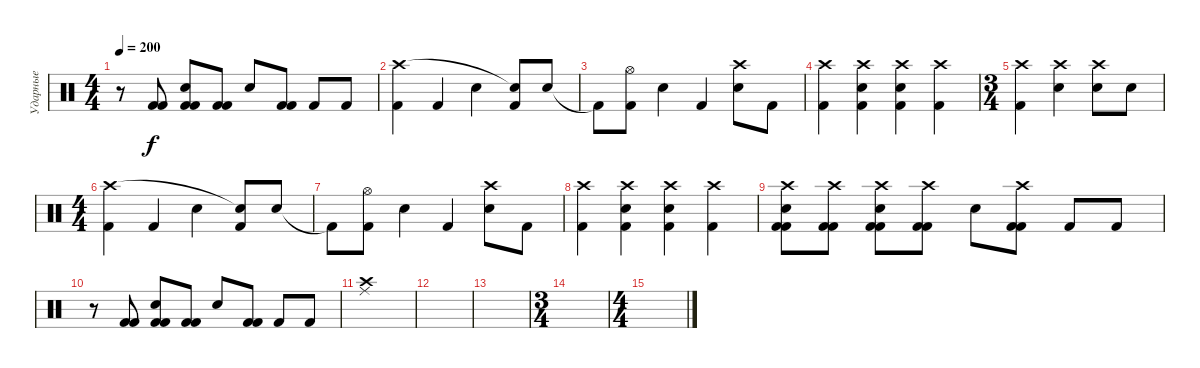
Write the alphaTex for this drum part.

\track ("Ударные" "Ударные") {instrument percussion}
\staff {score}
\articulation defaults
\ts (4 4)
\tempo 200
\clef neutral
\ks c
r.8{dy f} ("Kick (hit) 2" "Kick (hit) 2").8 ("Kick (hit) 2" "Kick (hit) 2" "Electric Snare (hit)").8 ("Kick (hit) 2" "Kick (hit) 2").8 "Electric Snare (hit)".8 ("Kick (hit) 2" "Kick (hit) 2").8 "Kick (hit) 2".8 "Kick (hit) 2".8 |
("Kick (hit) 2" "Crash high (hit)").4 "Kick (hit) 2".4 "Electric Snare (hit)".4 ("Kick (hit) 2" "Snare (hit)"{t}).8 "Electric Snare (hit)".8 |
"Kick (hit) 2"{t}.8 ("Hi-Hat (open)" "Kick (hit) 2").8 "Electric Snare (hit)".4 "Kick (hit) 2".4 ("Crash high (hit)" "Electric Snare (hit)").8 "Kick (hit) 2".8 |
("Crash high (hit)" "Kick (hit) 2").4 ("Crash high (hit)" "Kick (hit) 2" "Electric Snare (hit)").4 ("Crash high (hit)" "Kick (hit) 2" "Electric Snare (hit)").4 ("Crash high (hit)" "Kick (hit) 2").4 |
\ts (3 4)
("Crash high (hit)" "Kick (hit) 2").4 ("Crash high (hit)" "Electric Snare (hit)").4 ("Crash high (hit)" "Electric Snare (hit)").8 "Electric Snare (hit)".8 |
\ts (4 4)
("Kick (hit) 2" "Crash high (hit)").4 "Kick (hit) 2".4 "Electric Snare (hit)".4 ("Kick (hit) 2" "Snare (hit)"{t}).8 "Electric Snare (hit)".8 |
"Kick (hit) 2"{t}.8 ("Hi-Hat (open)" "Kick (hit) 2").8 "Electric Snare (hit)".4 "Kick (hit) 2".4 ("Crash high (hit)" "Electric Snare (hit)").8 "Kick (hit) 2".8 |
("Crash high (hit)" "Kick (hit) 2").4 ("Crash high (hit)" "Kick (hit) 2" "Electric Snare (hit)").4 ("Crash high (hit)" "Kick (hit) 2" "Electric Snare (hit)").4 ("Crash high (hit)" "Kick (hit) 2").4 |
("Crash high (hit)" "Kick (hit) 2" "Kick (hit) 2" "Electric Snare (hit)").8 ("Crash high (hit)" "Kick (hit) 2" "Kick (hit) 2").8 ("Crash high (hit)" "Kick (hit) 2" "Kick (hit) 2" "Electric Snare (hit)").8 ("Crash high (hit)" "Kick (hit) 2" "Kick (hit) 2").8 "Electric Snare (hit)".8 ("Crash high (hit)" "Kick (hit) 2" "Kick (hit) 2").8 "Kick (hit) 2".8 "Kick (hit) 2".8 |
r.8 ("Kick (hit) 2" "Kick (hit) 2").8 ("Kick (hit) 2" "Kick (hit) 2" "Electric Snare (hit)").8 ("Kick (hit) 2" "Kick (hit) 2").8 "Electric Snare (hit)".8 ("Kick (hit) 2" "Kick (hit) 2").8 "Kick (hit) 2".8 "Kick (hit) 2".8 |
("Crash high (hit)" "Ride (middle)").1 |
|
|
\ts (3 4)
|
\ts (4 4)
